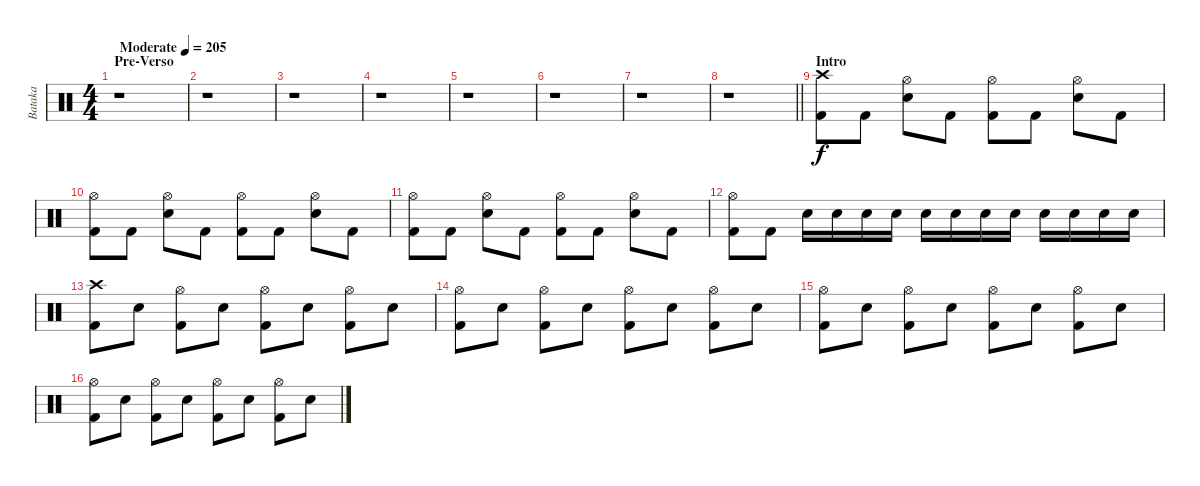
\track ("Bataka" "Bataka") {instrument percussion}
\staff {score}
\articulation defaults
\ts (4 4)
\section ("" "Pre-Verso")
\tempo (205 "Moderate")
\clef neutral
\ks c
r.1{dy f} |
r.1 |
r.1 |
r.1 |
r.1 |
r.1 |
r.1 |
\barLineRight lightlight
r.1 |
\section ("" "Intro")
("Crash high (hit)" "Kick (hit) 2").8 "Kick (hit) 2".8 ("Hi-Hat (open)" "Snare (hit) 2").8 "Kick (hit) 2".8 ("Hi-Hat (open)" "Kick (hit) 2").8 "Kick (hit) 2".8 ("Hi-Hat (open)" "Snare (hit) 2").8 "Kick (hit) 2".8 |
("Hi-Hat (open)" "Kick (hit) 2").8 "Kick (hit) 2".8 ("Hi-Hat (open)" "Snare (hit) 2").8 "Kick (hit) 2".8 ("Hi-Hat (open)" "Kick (hit) 2").8 "Kick (hit) 2".8 ("Hi-Hat (open)" "Snare (hit) 2").8 "Kick (hit) 2".8 |
("Hi-Hat (open)" "Kick (hit) 2").8 "Kick (hit) 2".8 ("Hi-Hat (open)" "Snare (hit) 2").8 "Kick (hit) 2".8 ("Hi-Hat (open)" "Kick (hit) 2").8 "Kick (hit) 2".8 ("Hi-Hat (open)" "Snare (hit) 2").8 "Kick (hit) 2".8 |
("Hi-Hat (open)" "Kick (hit) 2").8 "Kick (hit) 2".8 "Snare (hit) 2".16 "Snare (hit) 2".16 "Snare (hit) 2".16 "Snare (hit) 2".16 "Snare (hit) 2".16 "Snare (hit) 2".16 "Snare (hit) 2".16 "Snare (hit) 2".16 "Snare (hit) 2".16 "Snare (hit) 2".16 "Snare (hit) 2".16 "Snare (hit) 2".16 |
("Crash high (hit)" "Kick (hit) 2").8 "Snare (hit) 2".8 ("Hi-Hat (open)" "Kick (hit) 2").8 "Snare (hit) 2".8 ("Hi-Hat (open)" "Kick (hit) 2").8 "Snare (hit) 2".8 ("Hi-Hat (open)" "Kick (hit) 2").8 "Snare (hit) 2".8 |
("Hi-Hat (open)" "Kick (hit) 2").8 "Snare (hit) 2".8 ("Hi-Hat (open)" "Kick (hit) 2").8 "Snare (hit) 2".8 ("Hi-Hat (open)" "Kick (hit) 2").8 "Snare (hit) 2".8 ("Hi-Hat (open)" "Kick (hit) 2").8 "Snare (hit) 2".8 |
("Hi-Hat (open)" "Kick (hit) 2").8 "Snare (hit) 2".8 ("Hi-Hat (open)" "Kick (hit) 2").8 "Snare (hit) 2".8 ("Hi-Hat (open)" "Kick (hit) 2").8 "Snare (hit) 2".8 ("Hi-Hat (open)" "Kick (hit) 2").8 "Snare (hit) 2".8 |
("Hi-Hat (open)" "Kick (hit) 2").8 "Snare (hit) 2".8 ("Hi-Hat (open)" "Kick (hit) 2").8 "Snare (hit) 2".8 ("Hi-Hat (open)" "Kick (hit) 2").8 "Snare (hit) 2".8 ("Hi-Hat (open)" "Kick (hit) 2").8 "Snare (hit) 2".8
